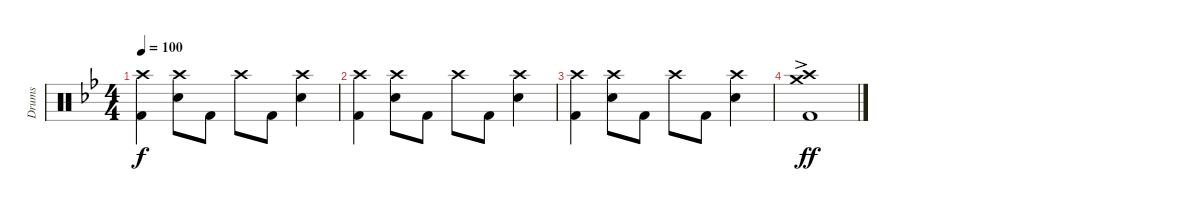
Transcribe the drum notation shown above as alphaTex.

\track ("Drums" "Drums") {instrument percussion}
\staff {score}
\articulation defaults
\ts (4 4)
\section ("" "")
\tempo 100
\clef neutral
\ks gminor
("Crash high (hit)" "Kick (hit) 2").4{dy f} ("Crash high (hit)" "Snare (hit) 2").8 "Kick (hit) 2".8 "Crash high (hit)".8 "Kick (hit) 2".8 ("Crash high (hit)" "Snare (hit) 2").4 |
("Crash high (hit)" "Kick (hit) 2").4 ("Crash high (hit)" "Snare (hit) 2").8 "Kick (hit) 2".8 "Crash high (hit)".8 "Kick (hit) 2".8 ("Crash high (hit)" "Snare (hit) 2").4 |
("Crash high (hit)" "Kick (hit) 2").4 ("Crash high (hit)" "Snare (hit) 2").8 "Kick (hit) 2".8 "Crash high (hit)".8 "Kick (hit) 2".8 ("Crash high (hit)" "Snare (hit) 2").4 |
("Crash medium (hit)"{ac} "Crash high (hit)"{ac} "Kick (hit) 2"{ac}).1{dy ff}
